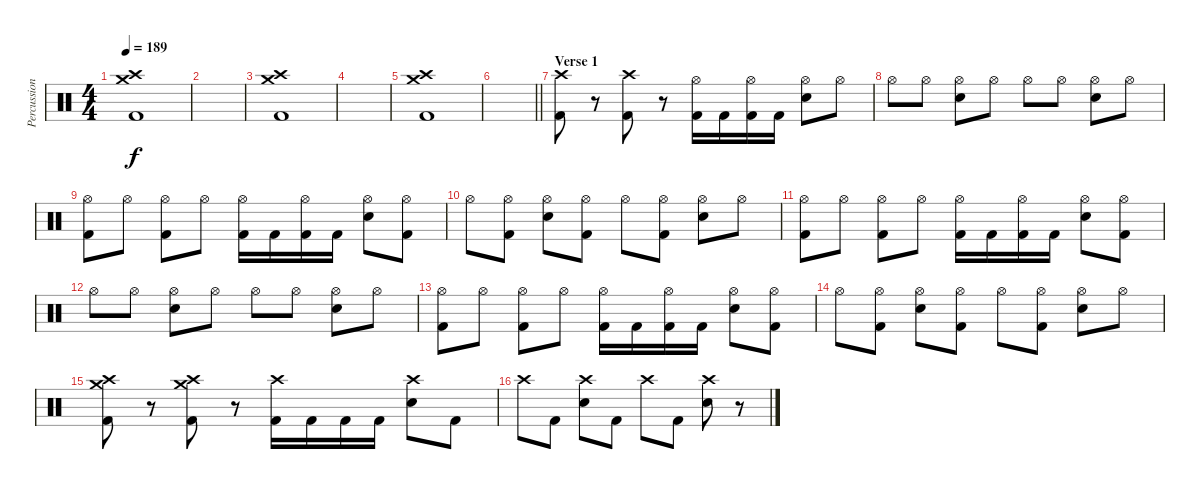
\track ("Percussion" "Percussion") {instrument percussion}
\staff {score}
\articulation defaults
\ts (4 4)
\tempo 189
\clef neutral
\ks c
("Crash medium (hit)" "Crash high (hit)" "Kick (hit) 2").1{dy f} |
|
("Crash medium (hit)" "Crash high (hit)" "Kick (hit) 2").1 |
|
("Crash medium (hit)" "Crash high (hit)" "Kick (hit) 2").1 |
\barLineRight lightlight
|
\section ("" "Verse 1")
("Crash high (hit)" "Kick (hit) 2").8 r.8 ("Crash high (hit)" "Kick (hit) 2").8 r.8 ("Hi-Hat (open)" "Kick (hit) 2").16 "Kick (hit) 2".16 ("Hi-Hat (open)" "Kick (hit) 2").16 "Kick (hit) 2".16 ("Hi-Hat (open)" "Electric Snare (hit)").8 "Hi-Hat (open)".8 |
"Hi-Hat (open)".8 "Hi-Hat (open)".8 ("Hi-Hat (open)" "Electric Snare (hit)").8 "Hi-Hat (open)".8 "Hi-Hat (open)".8 "Hi-Hat (open)".8 ("Hi-Hat (open)" "Electric Snare (hit)").8 "Hi-Hat (open)".8 |
("Hi-Hat (open)" "Kick (hit) 2").8 "Hi-Hat (open)".8 ("Hi-Hat (open)" "Kick (hit) 2").8 "Hi-Hat (open)".8 ("Hi-Hat (open)" "Kick (hit) 2").16 "Kick (hit) 2".16 ("Hi-Hat (open)" "Kick (hit) 2").16 "Kick (hit) 2".16 ("Hi-Hat (open)" "Electric Snare (hit)").8 ("Hi-Hat (open)" "Kick (hit) 2").8 |
"Hi-Hat (open)".8 ("Hi-Hat (open)" "Kick (hit) 2").8 ("Hi-Hat (open)" "Electric Snare (hit)").8 ("Hi-Hat (open)" "Kick (hit) 2").8 "Hi-Hat (open)".8 ("Hi-Hat (open)" "Kick (hit) 2").8 ("Hi-Hat (open)" "Electric Snare (hit)").8 "Hi-Hat (open)".8 |
("Hi-Hat (open)" "Kick (hit) 2").8 "Hi-Hat (open)".8 ("Hi-Hat (open)" "Kick (hit) 2").8 "Hi-Hat (open)".8 ("Hi-Hat (open)" "Kick (hit) 2").16 "Kick (hit) 2".16 ("Hi-Hat (open)" "Kick (hit) 2").16 "Kick (hit) 2".16 ("Hi-Hat (open)" "Electric Snare (hit)").8 ("Hi-Hat (open)" "Kick (hit) 2").8 |
"Hi-Hat (open)".8 "Hi-Hat (open)".8 ("Hi-Hat (open)" "Electric Snare (hit)").8 "Hi-Hat (open)".8 "Hi-Hat (open)".8 "Hi-Hat (open)".8 ("Hi-Hat (open)" "Electric Snare (hit)").8 "Hi-Hat (open)".8 |
("Hi-Hat (open)" "Kick (hit) 2").8 "Hi-Hat (open)".8 ("Hi-Hat (open)" "Kick (hit) 2").8 "Hi-Hat (open)".8 ("Hi-Hat (open)" "Kick (hit) 2").16 "Kick (hit) 2".16 ("Hi-Hat (open)" "Kick (hit) 2").16 "Kick (hit) 2".16 ("Hi-Hat (open)" "Electric Snare (hit)").8 ("Hi-Hat (open)" "Kick (hit) 2").8 |
"Hi-Hat (open)".8 ("Hi-Hat (open)" "Kick (hit) 2").8 ("Hi-Hat (open)" "Electric Snare (hit)").8 ("Hi-Hat (open)" "Kick (hit) 2").8 "Hi-Hat (open)".8 ("Hi-Hat (open)" "Kick (hit) 2").8 ("Hi-Hat (open)" "Electric Snare (hit)").8 "Hi-Hat (open)".8 |
("Crash medium (hit)" "Crash high (hit)" "Kick (hit) 2").8 r.8 ("Crash medium (hit)" "Crash high (hit)" "Kick (hit) 2").8 r.8 ("Crash high (hit)" "Kick (hit) 2").16 "Kick (hit) 2".16 "Kick (hit) 2".16 "Kick (hit) 2".16 ("Crash high (hit)" "Electric Snare (hit)").8 "Kick (hit) 2".8 |
"Crash high (hit)".8 "Kick (hit) 2".8 ("Crash high (hit)" "Electric Snare (hit)").8 "Kick (hit) 2".8 "Crash high (hit)".8 "Kick (hit) 2".8 ("Crash high (hit)" "Electric Snare (hit)").8 r.8
